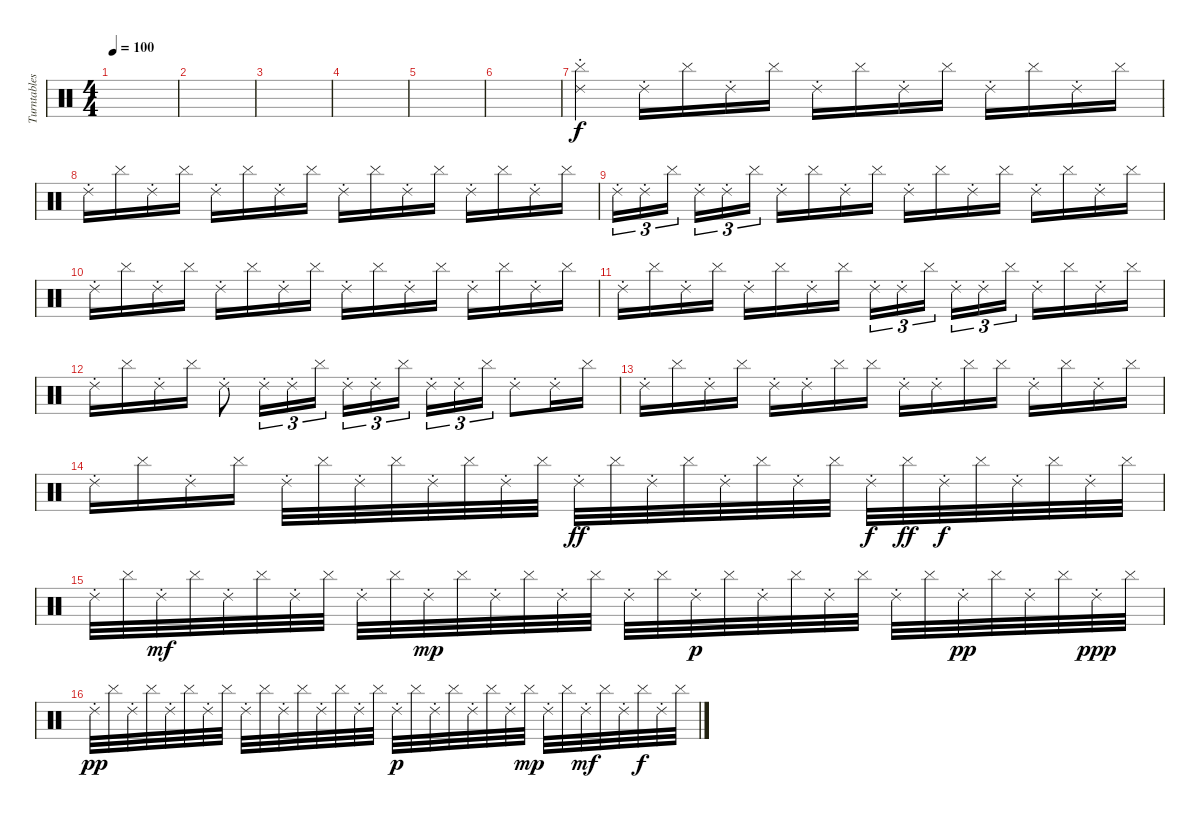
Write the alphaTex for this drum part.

\track ("Turntables - Joe Hahn" "Turntables") {instrument percussion}
\staff {score}
\articulation defaults
\ts (4 4)
\tempo 100
\clef neutral
\ks c
|
|
|
|
|
|
("Cymbal (hit)" "Ride (choke) 2").4 "Ride (choke) 2".16 "Cymbal (hit)".16 "Ride (choke) 2".16 "Cymbal (hit)".16 "Ride (choke) 2".16 "Cymbal (hit)".16 "Ride (choke) 2".16 "Cymbal (hit)".16 "Ride (choke) 2".16 "Cymbal (hit)".16 "Ride (choke) 2".16 "Cymbal (hit)".16 |
"Ride (choke) 2".16 "Cymbal (hit)".16 "Ride (choke) 2".16 "Cymbal (hit)".16 "Ride (choke) 2".16 "Cymbal (hit)".16 "Ride (choke) 2".16 "Cymbal (hit)".16 "Ride (choke) 2".16 "Cymbal (hit)".16 "Ride (choke) 2".16 "Cymbal (hit)".16 "Ride (choke) 2".16 "Cymbal (hit)".16 "Ride (choke) 2".16 "Cymbal (hit)".16 |
"Ride (choke) 2".16{tu (3 2)} "Ride (choke) 2".16{tu (3 2)} "Cymbal (hit)".16{tu (3 2) beam splitsecondary} "Ride (choke) 2".16{tu (3 2)} "Ride (choke) 2".16{tu (3 2)} "Cymbal (hit)".16{tu (3 2)} "Ride (choke) 2".16 "Cymbal (hit)".16 "Ride (choke) 2".16 "Cymbal (hit)".16 "Ride (choke) 2".16 "Cymbal (hit)".16 "Ride (choke) 2".16 "Cymbal (hit)".16 "Ride (choke) 2".16 "Cymbal (hit)".16 "Ride (choke) 2".16 "Cymbal (hit)".16 |
"Ride (choke) 2".16 "Cymbal (hit)".16 "Ride (choke) 2".16 "Cymbal (hit)".16 "Ride (choke) 2".16 "Cymbal (hit)".16 "Ride (choke) 2".16 "Cymbal (hit)".16 "Ride (choke) 2".16 "Cymbal (hit)".16 "Ride (choke) 2".16 "Cymbal (hit)".16 "Ride (choke) 2".16 "Cymbal (hit)".16 "Ride (choke) 2".16 "Cymbal (hit)".16 |
"Ride (choke) 2".16 "Cymbal (hit)".16 "Ride (choke) 2".16 "Cymbal (hit)".16 "Ride (choke) 2".16 "Cymbal (hit)".16 "Ride (choke) 2".16 "Cymbal (hit)".16 "Ride (choke) 2".16{tu (3 2)} "Ride (choke) 2".16{tu (3 2)} "Cymbal (hit)".16{tu (3 2) beam splitsecondary} "Ride (choke) 2".16{tu (3 2)} "Ride (choke) 2".16{tu (3 2)} "Cymbal (hit)".16{tu (3 2)} "Ride (choke) 2".16 "Cymbal (hit)".16 "Ride (choke) 2".16 "Cymbal (hit)".16 |
"Ride (choke) 2".16 "Cymbal (hit)".16 "Ride (choke) 2".16 "Cymbal (hit)".16 "Ride (choke) 2".8 "Ride (choke) 2".16{tu (3 2)} "Ride (choke) 2".16{tu (3 2)} "Cymbal (hit)".16{tu (3 2)} "Ride (choke) 2".16{tu (3 2)} "Ride (choke) 2".16{tu (3 2)} "Cymbal (hit)".16{tu (3 2) beam splitsecondary} "Ride (choke) 2".16{tu (3 2)} "Ride (choke) 2".16{tu (3 2)} "Cymbal (hit)".16{tu (3 2)} "Ride (choke) 2".8 "Ride (choke) 2".16 "Cymbal (hit)".16 |
"Ride (choke) 2".16 "Cymbal (hit)".16 "Ride (choke) 2".16 "Cymbal (hit)".16 "Ride (choke) 2".16 "Ride (choke) 2".16 "Cymbal (hit)".16 "Cymbal (hit)".16 "Ride (choke) 2".16 "Ride (choke) 2".16 "Cymbal (hit)".16 "Cymbal (hit)".16 "Ride (choke) 2".16 "Cymbal (hit)".16 "Ride (choke) 2".16 "Cymbal (hit)".16 |
"Ride (choke) 2".16 "Cymbal (hit)".16 "Ride (choke) 2".16 "Cymbal (hit)".16 "Ride (choke) 2".32 "Cymbal (hit)".32 "Ride (choke) 2".32 "Cymbal (hit)".32 "Ride (choke) 2".32 "Cymbal (hit)".32 "Ride (choke) 2".32 "Cymbal (hit)".32 "Ride (choke) 2".32{dy ff} "Cymbal (hit)".32 "Ride (choke) 2".32 "Cymbal (hit)".32 "Ride (choke) 2".32 "Cymbal (hit)".32 "Ride (choke) 2".32 "Cymbal (hit)".32 "Ride (choke) 2".32{dy f} "Cymbal (hit)".32{dy ff} "Ride (choke) 2".32{dy f} "Cymbal (hit)".32 "Ride (choke) 2".32 "Cymbal (hit)".32 "Ride (choke) 2".32 "Cymbal (hit)".32 |
"Ride (choke) 2".32 "Cymbal (hit)".32 "Ride (choke) 2".32{dy mf} "Cymbal (hit)".32 "Ride (choke) 2".32 "Cymbal (hit)".32 "Ride (choke) 2".32 "Cymbal (hit)".32 "Ride (choke) 2".32 "Cymbal (hit)".32 "Ride (choke) 2".32{dy mp} "Cymbal (hit)".32 "Ride (choke) 2".32 "Cymbal (hit)".32 "Ride (choke) 2".32 "Cymbal (hit)".32 "Ride (choke) 2".32 "Cymbal (hit)".32 "Ride (choke) 2".32{dy p} "Cymbal (hit)".32 "Ride (choke) 2".32 "Cymbal (hit)".32 "Ride (choke) 2".32 "Cymbal (hit)".32 "Ride (choke) 2".32 "Cymbal (hit)".32 "Ride (choke) 2".32{dy pp} "Cymbal (hit)".32 "Ride (choke) 2".32 "Cymbal (hit)".32 "Ride (choke) 2".32{dy ppp} "Cymbal (hit)".32 |
"Ride (choke) 2".32{dy pp} "Cymbal (hit)".32 "Ride (choke) 2".32 "Cymbal (hit)".32 "Ride (choke) 2".32 "Cymbal (hit)".32 "Ride (choke) 2".32 "Cymbal (hit)".32 "Ride (choke) 2".32 "Cymbal (hit)".32 "Ride (choke) 2".32 "Cymbal (hit)".32 "Ride (choke) 2".32 "Cymbal (hit)".32 "Ride (choke) 2".32 "Cymbal (hit)".32 "Ride (choke) 2".32{dy p} "Cymbal (hit)".32 "Ride (choke) 2".32 "Cymbal (hit)".32 "Ride (choke) 2".32 "Cymbal (hit)".32 "Ride (choke) 2".32 "Cymbal (hit)".32{dy mp} "Ride (choke) 2".32 "Cymbal (hit)".32 "Ride (choke) 2".32{dy mf} "Cymbal (hit)".32 "Ride (choke) 2".32 "Cymbal (hit)".32{dy f} "Ride (choke) 2".32 "Cymbal (hit)".32
